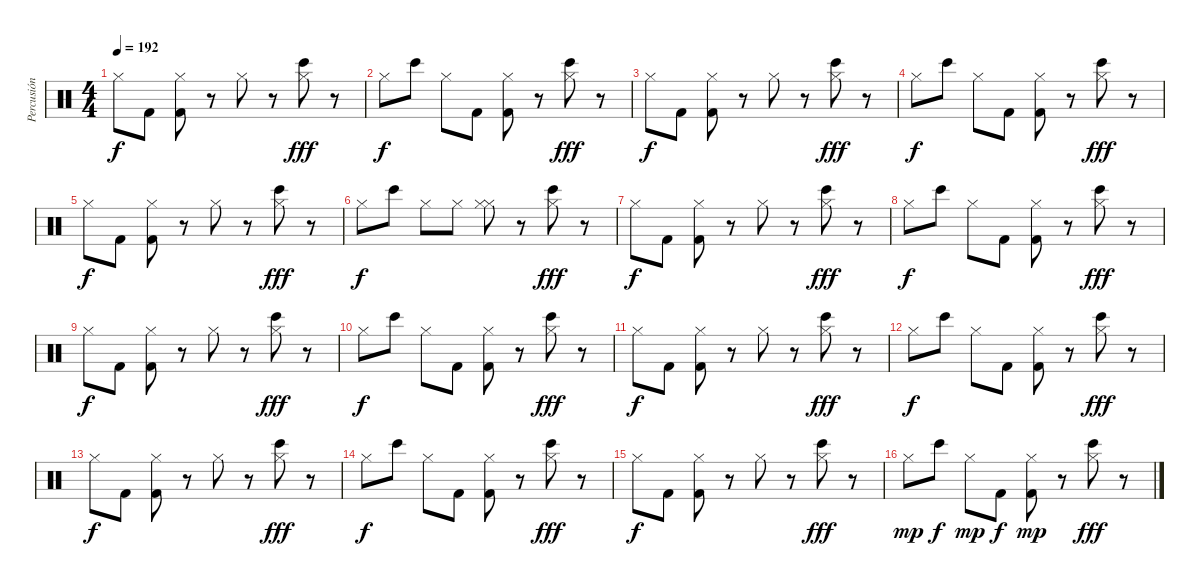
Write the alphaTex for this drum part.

\track ("Percusión" "Percusión") {instrument percussion}
\staff {score}
\articulation defaults
\ts (4 4)
\tempo 192
\clef neutral
\ks c "Hi-Hat (closed)".8{dy f} "Kick (hit) 2".8
("Hi-Hat (closed)" "Kick (hit) 2").8 r.8 "Hi-Hat (closed)".8 r.8 ("Hi-Hat (closed)" "Bongo High (hit)").8{dy fff} r.8 |
"Hi-Hat (closed)".8{dy f} "Bongo High (hit)".8 "Hi-Hat (closed)".8 "Kick (hit) 2".8 ("Hi-Hat (closed)" "Kick (hit) 2").8 r.8 ("Hi-Hat (closed)" "Bongo High (hit)").8{dy fff} r.8 |
"Hi-Hat (closed)".8{dy f} "Kick (hit) 2".8 ("Hi-Hat (closed)" "Kick (hit) 2").8 r.8 "Hi-Hat (closed)".8 r.8 ("Hi-Hat (closed)" "Bongo High (hit)").8{dy fff} r.8 |
"Hi-Hat (closed)".8{dy f} "Bongo High (hit)".8 "Hi-Hat (closed)".8 "Kick (hit) 2".8 ("Hi-Hat (closed)" "Kick (hit) 2").8 r.8 ("Hi-Hat (closed)" "Bongo High (hit)").8{dy fff} r.8 |
"Hi-Hat (closed)".8{dy f} "Kick (hit) 2".8 ("Hi-Hat (closed)" "Kick (hit) 2").8 r.8 "Hi-Hat (closed)".8 r.8 ("Hi-Hat (closed)" "Bongo High (hit)").8{dy fff} r.8 |
"Hi-Hat (closed)".8{dy f} "Bongo High (hit)".8 "Hi-Hat (closed)".8 "Hi-Hat (closed)".8 ("Hi-Hat (closed)" "Hi-Hat (closed)").8 r.8 ("Hi-Hat (closed)" "Bongo High (hit)").8{dy fff} r.8 |
"Hi-Hat (closed)".8{dy f} "Kick (hit) 2".8 ("Hi-Hat (closed)" "Kick (hit) 2").8 r.8 "Hi-Hat (closed)".8 r.8 ("Hi-Hat (closed)" "Bongo High (hit)").8{dy fff} r.8 |
"Hi-Hat (closed)".8{dy f} "Bongo High (hit)".8 "Hi-Hat (closed)".8 "Kick (hit) 2".8 ("Hi-Hat (closed)" "Kick (hit) 2").8 r.8 ("Hi-Hat (closed)" "Bongo High (hit)").8{dy fff} r.8 |
"Hi-Hat (closed)".8{dy f} "Kick (hit) 2".8 ("Hi-Hat (closed)" "Kick (hit) 2").8 r.8 "Hi-Hat (closed)".8 r.8 ("Hi-Hat (closed)" "Bongo High (hit)").8{dy fff} r.8 |
"Hi-Hat (closed)".8{dy f} "Bongo High (hit)".8 "Hi-Hat (closed)".8 "Kick (hit) 2".8 ("Hi-Hat (closed)" "Kick (hit) 2").8 r.8 ("Hi-Hat (closed)" "Bongo High (hit)").8{dy fff} r.8 |
"Hi-Hat (closed)".8{dy f} "Kick (hit) 2".8 ("Hi-Hat (closed)" "Kick (hit) 2").8 r.8 "Hi-Hat (closed)".8 r.8 ("Hi-Hat (closed)" "Bongo High (hit)").8{dy fff} r.8 |
"Hi-Hat (closed)".8{dy f} "Bongo High (hit)".8 "Hi-Hat (closed)".8 "Kick (hit) 2".8 ("Hi-Hat (closed)" "Kick (hit) 2").8 r.8 ("Hi-Hat (closed)" "Bongo High (hit)").8{dy fff} r.8 |
"Hi-Hat (closed)".8{dy f} "Kick (hit) 2".8 ("Hi-Hat (closed)" "Kick (hit) 2").8 r.8 "Hi-Hat (closed)".8 r.8 ("Hi-Hat (closed)" "Bongo High (hit)").8{dy fff} r.8 |
"Hi-Hat (closed)".8{dy f} "Bongo High (hit)".8 "Hi-Hat (closed)".8 "Kick (hit) 2".8 ("Hi-Hat (closed)" "Kick (hit) 2").8 r.8 ("Hi-Hat (closed)" "Bongo High (hit)").8{dy fff} r.8 |
"Hi-Hat (closed)".8{dy f} "Kick (hit) 2".8 ("Hi-Hat (closed)" "Kick (hit) 2").8 r.8 "Hi-Hat (closed)".8 r.8 ("Hi-Hat (closed)" "Bongo High (hit)").8{dy fff} r.8 |
"Hi-Hat (closed)".8{dy mp} "Bongo High (hit)".8{dy f} "Hi-Hat (closed)".8{dy mp} "Kick (hit) 2".8{dy f} ("Hi-Hat (closed)" "Kick (hit) 2").8{dy mp} r.8 ("Hi-Hat (closed)" "Bongo High (hit)").8{dy fff} r.8
